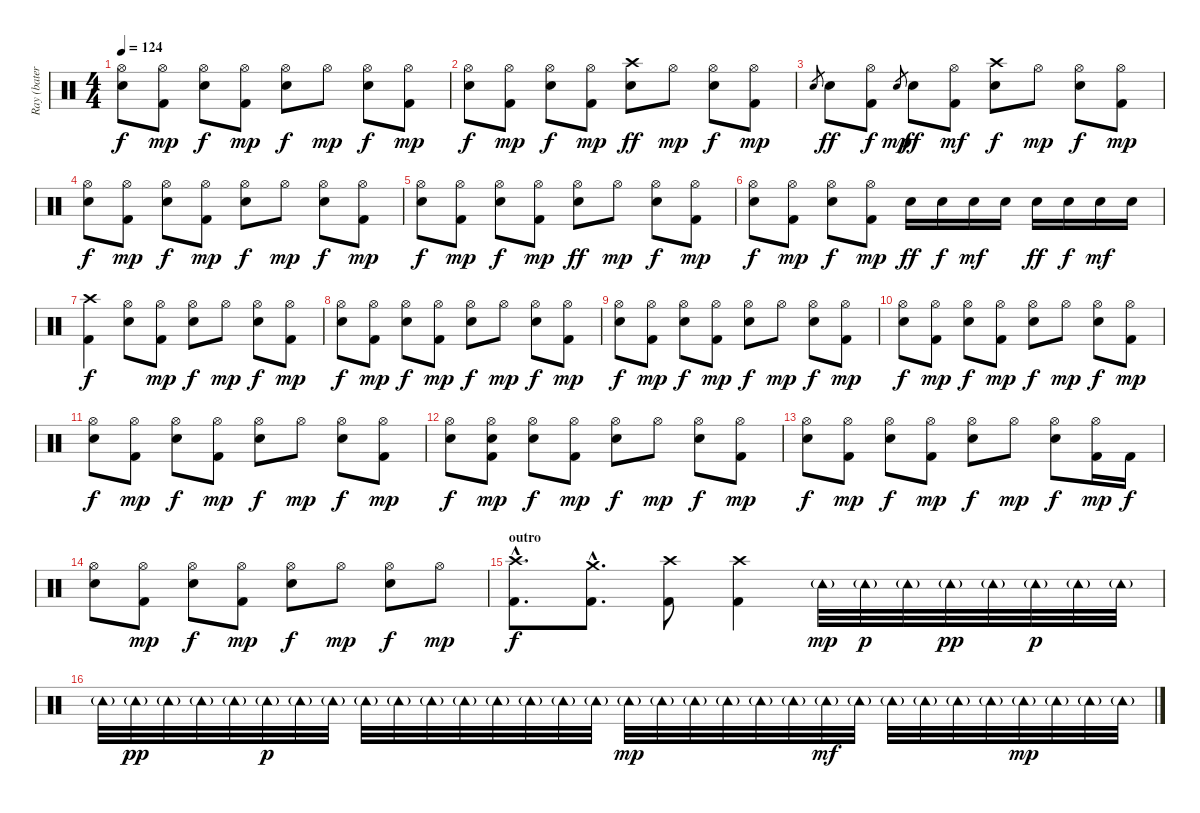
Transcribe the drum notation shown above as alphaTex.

\track ("Ray (batería)" "Ray (bater") {instrument percussion}
\staff {score}
\articulation defaults
\ts (4 4)
\tempo 124
\clef neutral
\ks c
("Hi-Hat (open)" "Snare (hit) 2").8{dy f} ("Hi-Hat (open)" "Kick (hit) 2").8{dy mp} ("Hi-Hat (open)" "Snare (hit) 2").8{dy f} ("Hi-Hat (open)" "Kick (hit) 2").8{dy mp} ("Hi-Hat (open)" "Snare (hit) 2").8{dy f} "Hi-Hat (open)".8{dy mp} ("Hi-Hat (open)" "Snare (hit) 2").8{dy f} ("Hi-Hat (open)" "Kick (hit) 2").8{dy mp} |
("Hi-Hat (open)" "Snare (hit) 2").8{dy f} ("Hi-Hat (open)" "Kick (hit) 2").8{dy mp} ("Hi-Hat (open)" "Snare (hit) 2").8{dy f} ("Hi-Hat (open)" "Kick (hit) 2").8{dy mp} ("Crash high (hit)" "Snare (hit) 2").8{dy ff} "Hi-Hat (open)".8{dy mp} ("Hi-Hat (open)" "Snare (hit) 2").8{dy f} ("Hi-Hat (open)" "Kick (hit) 2").8{dy mp} |
"Snare (hit) 2".8{gr} "Snare (hit) 2".8{dy ff} ("Hi-Hat (open)" "Kick (hit) 2").8{dy f} "Snare (hit) 2".8{gr dy mp} "Snare (hit) 2".8{dy ff} ("Hi-Hat (open)" "Kick (hit) 2").8{dy mf} ("Crash high (hit)" "Snare (hit) 2").8{dy f} "Hi-Hat (open)".8{dy mp} ("Hi-Hat (open)" "Snare (hit) 2").8{dy f} ("Hi-Hat (open)" "Kick (hit) 2").8{dy mp} |
("Hi-Hat (open)" "Snare (hit) 2").8{dy f} ("Hi-Hat (open)" "Kick (hit) 2").8{dy mp} ("Hi-Hat (open)" "Snare (hit) 2").8{dy f} ("Hi-Hat (open)" "Kick (hit) 2").8{dy mp} ("Hi-Hat (open)" "Snare (hit) 2").8{dy f} "Hi-Hat (open)".8{dy mp} ("Hi-Hat (open)" "Snare (hit) 2").8{dy f} ("Hi-Hat (open)" "Kick (hit) 2").8{dy mp} |
("Hi-Hat (open)" "Snare (hit) 2").8{dy f} ("Hi-Hat (open)" "Kick (hit) 2").8{dy mp} ("Hi-Hat (open)" "Snare (hit) 2").8{dy f} ("Hi-Hat (open)" "Kick (hit) 2").8{dy mp} ("Hi-Hat (open)" "Snare (hit) 2").8{dy ff} "Hi-Hat (open)".8{dy mp} ("Hi-Hat (open)" "Snare (hit) 2").8{dy f} ("Hi-Hat (open)" "Kick (hit) 2").8{dy mp} |
("Hi-Hat (open)" "Snare (hit) 2").8{dy f} ("Hi-Hat (open)" "Kick (hit) 2").8{dy mp} ("Hi-Hat (open)" "Snare (hit) 2").8{dy f} ("Hi-Hat (open)" "Kick (hit) 2").8{dy mp} "Snare (hit) 2".16{dy ff} "Snare (hit) 2".16{dy f} "Snare (hit) 2".16{dy mf} "Snare (hit) 2".16 "Snare (hit) 2".16{dy ff} "Snare (hit) 2".16{dy f} "Snare (hit) 2".16{dy mf} "Snare (hit) 2".16 |
\section ("" "")
("Crash high (hit)" "Kick (hit) 2").4{dy f} ("Hi-Hat (open)" "Snare (hit) 2").8 ("Hi-Hat (open)" "Kick (hit) 2").8{dy mp} ("Hi-Hat (open)" "Snare (hit) 2").8{dy f} "Hi-Hat (open)".8{dy mp} ("Hi-Hat (open)" "Snare (hit) 2").8{dy f} ("Hi-Hat (open)" "Kick (hit) 2").8{dy mp} |
("Hi-Hat (open)" "Snare (hit) 2").8{dy f} ("Hi-Hat (open)" "Kick (hit) 2").8{dy mp} ("Hi-Hat (open)" "Snare (hit) 2").8{dy f} ("Hi-Hat (open)" "Kick (hit) 2").8{dy mp} ("Hi-Hat (open)" "Snare (hit) 2").8{dy f} "Hi-Hat (open)".8{dy mp} ("Hi-Hat (open)" "Snare (hit) 2").8{dy f} ("Hi-Hat (open)" "Kick (hit) 2").8{dy mp} |
("Hi-Hat (open)" "Snare (hit) 2").8{dy f} ("Hi-Hat (open)" "Kick (hit) 2").8{dy mp} ("Hi-Hat (open)" "Snare (hit) 2").8{dy f} ("Hi-Hat (open)" "Kick (hit) 2").8{dy mp} ("Hi-Hat (open)" "Snare (hit) 2").8{dy f} "Hi-Hat (open)".8{dy mp} ("Hi-Hat (open)" "Snare (hit) 2").8{dy f} ("Hi-Hat (open)" "Kick (hit) 2").8{dy mp} |
("Hi-Hat (open)" "Snare (hit) 2").8{dy f} ("Hi-Hat (open)" "Kick (hit) 2").8{dy mp} ("Hi-Hat (open)" "Snare (hit) 2").8{dy f} ("Hi-Hat (open)" "Kick (hit) 2").8{dy mp} ("Hi-Hat (open)" "Snare (hit) 2").8{dy f} "Hi-Hat (open)".8{dy mp} ("Hi-Hat (open)" "Snare (hit) 2").8{dy f} ("Hi-Hat (open)" "Kick (hit) 2").8{dy mp} |
("Hi-Hat (open)" "Snare (hit) 2").8{dy f} ("Hi-Hat (open)" "Kick (hit) 2").8{dy mp} ("Hi-Hat (open)" "Snare (hit) 2").8{dy f} ("Hi-Hat (open)" "Kick (hit) 2").8{dy mp} ("Hi-Hat (open)" "Snare (hit) 2").8{dy f} "Hi-Hat (open)".8{dy mp} ("Hi-Hat (open)" "Snare (hit) 2").8{dy f} ("Hi-Hat (open)" "Kick (hit) 2").8{dy mp} |
("Hi-Hat (open)" "Snare (hit) 2").8{dy f} ("Hi-Hat (open)" "Snare (hit) 2" "Kick (hit) 2").8{dy mp} ("Hi-Hat (open)" "Snare (hit) 2").8{dy f} ("Hi-Hat (open)" "Kick (hit) 2").8{dy mp} ("Hi-Hat (open)" "Snare (hit) 2").8{dy f} "Hi-Hat (open)".8{dy mp} ("Hi-Hat (open)" "Snare (hit) 2").8{dy f} ("Hi-Hat (open)" "Kick (hit) 2").8{dy mp} |
("Hi-Hat (open)" "Snare (hit) 2").8{dy f} ("Hi-Hat (open)" "Kick (hit) 2").8{dy mp} ("Hi-Hat (open)" "Snare (hit) 2").8{dy f} ("Hi-Hat (open)" "Kick (hit) 2").8{dy mp} ("Hi-Hat (open)" "Snare (hit) 2").8{dy f} "Hi-Hat (open)".8{dy mp} ("Hi-Hat (open)" "Snare (hit) 2").8{dy f} ("Hi-Hat (open)" "Kick (hit) 2").16{dy mp} "Kick (hit) 2".16{dy f} |
("Hi-Hat (open)" "Snare (hit) 2").8 ("Hi-Hat (open)" "Kick (hit) 2").8{dy mp} ("Hi-Hat (open)" "Snare (hit) 2").8{dy f} ("Hi-Hat (open)" "Kick (hit) 2").8{dy mp} ("Hi-Hat (open)" "Snare (hit) 2").8{dy f} "Hi-Hat (open)".8{dy mp} ("Hi-Hat (open)" "Snare (hit) 2").8{dy f} "Hi-Hat (open)".8{dy mp} |
\section ("" "outro")
("Crash high (hit)"{hac} "Kick (hit) 2"{hac}).8{d dy f} ("Crash medium (hit)"{hac} "Kick (hit) 2"{hac}).8{d} ("Crash high (hit)" "Kick (hit) 2").8 ("Crash high (hit)" "Kick (hit) 2").4 "Tambourine (hit)"{g}.32{dy mp} "Tambourine (hit)"{g}.32{dy p} "Tambourine (hit)"{g}.32 "Tambourine (hit)"{g}.32{dy pp} "Tambourine (hit)"{g}.32 "Tambourine (hit)"{g}.32{dy p} "Tambourine (hit)"{g}.32 "Tambourine (hit)"{g}.32 |
"Tambourine (hit)"{g}.32 "Tambourine (hit)"{g}.32{dy pp} "Tambourine (hit)"{g}.32 "Tambourine (hit)"{g}.32 "Tambourine (hit)"{g}.32 "Tambourine (hit)"{g}.32{dy p} "Tambourine (hit)"{g}.32 "Tambourine (hit)"{g}.32 "Tambourine (hit)"{g}.32 "Tambourine (hit)"{g}.32 "Tambourine (hit)"{g}.32 "Tambourine (hit)"{g}.32 "Tambourine (hit)"{g}.32 "Tambourine (hit)"{g}.32 "Tambourine (hit)"{g}.32 "Tambourine (hit)"{g}.32 "Tambourine (hit)"{g}.32{dy mp} "Tambourine (hit)"{g}.32 "Tambourine (hit)"{g}.32 "Tambourine (hit)"{g}.32 "Tambourine (hit)"{g}.32 "Tambourine (hit)"{g}.32 "Tambourine (hit)"{g}.32{dy mf} "Tambourine (hit)"{g}.32 "Tambourine (hit)"{g}.32 "Tambourine (hit)"{g}.32 "Tambourine (hit)"{g}.32 "Tambourine (hit)"{g}.32 "Tambourine (hit)"{g}.32{dy mp} "Tambourine (hit)"{g}.32 "Tambourine (hit)"{g}.32 "Tambourine (hit)"{g}.32
